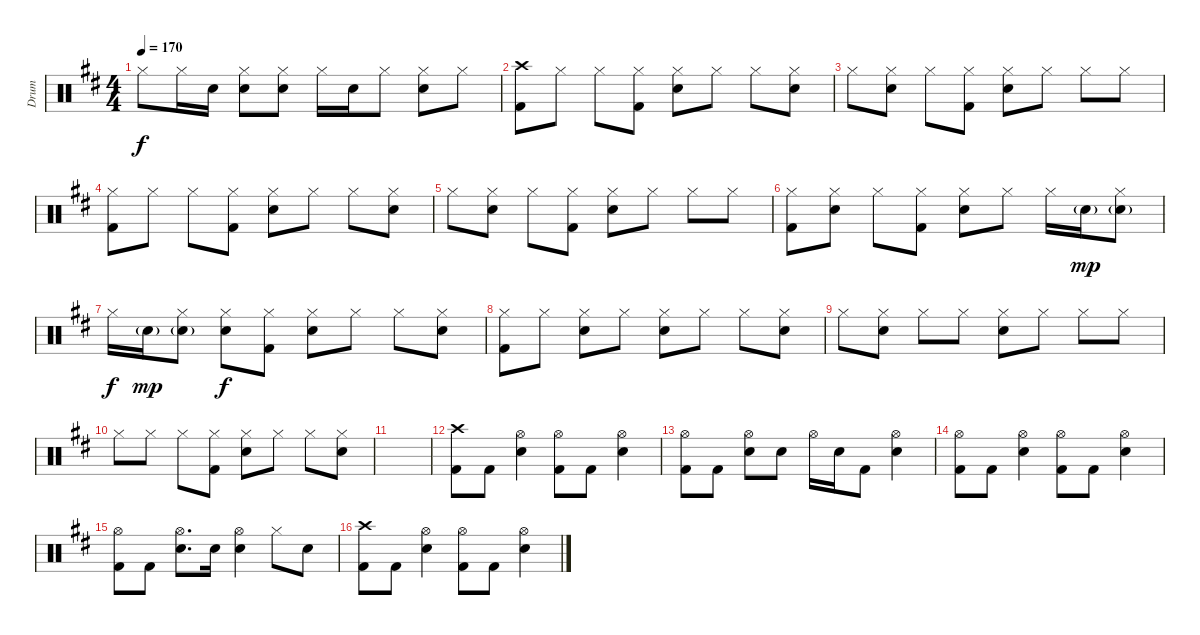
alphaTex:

\track ("Drum" "Drum") {instrument percussion}
\staff {score}
\articulation defaults
\ts (4 4)
\tempo 170
\clef neutral
\ks d "Hi-Hat (closed)".8{dy f} "Hi-Hat (closed)".16 "Electric Snare (hit)".16
("Hi-Hat (closed)" "Electric Snare (hit)").8 ("Hi-Hat (closed)" "Electric Snare (hit)").8 "Hi-Hat (closed)".16 "Electric Snare (hit)".16 "Hi-Hat (closed)".8 ("Hi-Hat (closed)" "Electric Snare (hit)").8 "Hi-Hat (closed)".8 |
("Crash high (hit)" "Kick (hit) 2").8 "Hi-Hat (closed)".8 "Hi-Hat (closed)".8 ("Hi-Hat (closed)" "Kick (hit) 2").8 ("Hi-Hat (closed)" "Electric Snare (hit)").8 "Hi-Hat (closed)".8 "Hi-Hat (closed)".8 ("Hi-Hat (closed)" "Electric Snare (hit)").8 |
"Hi-Hat (closed)".8 ("Hi-Hat (closed)" "Electric Snare (hit)").8 "Hi-Hat (closed)".8 ("Hi-Hat (closed)" "Kick (hit) 2").8 ("Hi-Hat (closed)" "Electric Snare (hit)").8 "Hi-Hat (closed)".8 "Hi-Hat (closed)".8 "Hi-Hat (closed)".8 |
("Hi-Hat (closed)" "Kick (hit) 2").8 "Hi-Hat (closed)".8 "Hi-Hat (closed)".8 ("Hi-Hat (closed)" "Kick (hit) 2").8 ("Hi-Hat (closed)" "Electric Snare (hit)").8 "Hi-Hat (closed)".8 "Hi-Hat (closed)".8 ("Hi-Hat (closed)" "Electric Snare (hit)").8 |
"Hi-Hat (closed)".8 ("Hi-Hat (closed)" "Electric Snare (hit)").8 "Hi-Hat (closed)".8 ("Hi-Hat (closed)" "Kick (hit) 2").8 ("Hi-Hat (closed)" "Electric Snare (hit)").8 "Hi-Hat (closed)".8 "Hi-Hat (closed)".8 "Hi-Hat (closed)".8 |
("Hi-Hat (closed)" "Kick (hit) 2").8 ("Hi-Hat (closed)" "Electric Snare (hit)").8 "Hi-Hat (closed)".8 ("Hi-Hat (closed)" "Kick (hit) 2").8 ("Hi-Hat (closed)" "Electric Snare (hit)").8 "Hi-Hat (closed)".8 "Hi-Hat (closed)".16 "Electric Snare (hit)"{g}.16{dy mp} ("Hi-Hat (closed)" "Electric Snare (hit)"{g}).8 |
"Hi-Hat (closed)".16{dy f} "Electric Snare (hit)"{g}.16{dy mp} ("Hi-Hat (closed)" "Electric Snare (hit)"{g}).8 ("Hi-Hat (closed)" "Electric Snare (hit)").8{dy f} ("Hi-Hat (closed)" "Kick (hit) 2").8 ("Hi-Hat (closed)" "Electric Snare (hit)").8 "Hi-Hat (closed)".8 "Hi-Hat (closed)".8 ("Hi-Hat (closed)" "Electric Snare (hit)").8 |
("Hi-Hat (closed)" "Kick (hit) 2").8 "Hi-Hat (closed)".8 ("Hi-Hat (closed)" "Electric Snare (hit)").8 "Hi-Hat (closed)".8 ("Hi-Hat (closed)" "Electric Snare (hit)").8 "Hi-Hat (closed)".8 "Hi-Hat (closed)".8 ("Hi-Hat (closed)" "Electric Snare (hit)").8 |
"Hi-Hat (closed)".8 ("Hi-Hat (closed)" "Electric Snare (hit)").8 "Hi-Hat (closed)".8 "Hi-Hat (closed)".8 ("Hi-Hat (closed)" "Electric Snare (hit)").8 "Hi-Hat (closed)".8 "Hi-Hat (closed)".8 "Hi-Hat (closed)".8 |
"Hi-Hat (closed)".8 "Hi-Hat (closed)".8 "Hi-Hat (closed)".8 ("Hi-Hat (closed)" "Kick (hit) 2").8 ("Hi-Hat (closed)" "Electric Snare (hit)").8 "Hi-Hat (closed)".8 "Hi-Hat (closed)".8 ("Hi-Hat (closed)" "Electric Snare (hit)").8 |
|
("Crash high (hit)" "Kick (hit) 2").8 "Kick (hit) 2".8 ("Hi-Hat (open)" "Electric Snare (hit)").4 ("Hi-Hat (open)" "Kick (hit) 2").8 "Kick (hit) 2".8 ("Hi-Hat (open)" "Electric Snare (hit)").4 |
("Hi-Hat (open)" "Kick (hit) 2").8 "Kick (hit) 2".8 ("Hi-Hat (open)" "Electric Snare (hit)").8 "Electric Snare (hit)".8 "Hi-Hat (open)".16 "Electric Snare (hit)".16 "Kick (hit) 2".8 ("Hi-Hat (open)" "Electric Snare (hit)").4 |
("Hi-Hat (open)" "Kick (hit) 2").8 "Kick (hit) 2".8 ("Hi-Hat (open)" "Electric Snare (hit)").4 ("Hi-Hat (open)" "Kick (hit) 2").8 "Kick (hit) 2".8 ("Hi-Hat (open)" "Electric Snare (hit)").4 |
("Hi-Hat (open)" "Kick (hit) 2").8 "Kick (hit) 2".8 ("Hi-Hat (open)" "Electric Snare (hit)").8{d} "Electric Snare (hit)".16 ("Hi-Hat (open)" "Electric Snare (hit)").4 "Hi-Hat (closed)".8 "Electric Snare (hit)".8 |
("Crash high (hit)" "Kick (hit) 2").8 "Kick (hit) 2".8 ("Hi-Hat (open)" "Electric Snare (hit)").4 ("Hi-Hat (open)" "Kick (hit) 2").8 "Kick (hit) 2".8 ("Hi-Hat (open)" "Electric Snare (hit)").4
